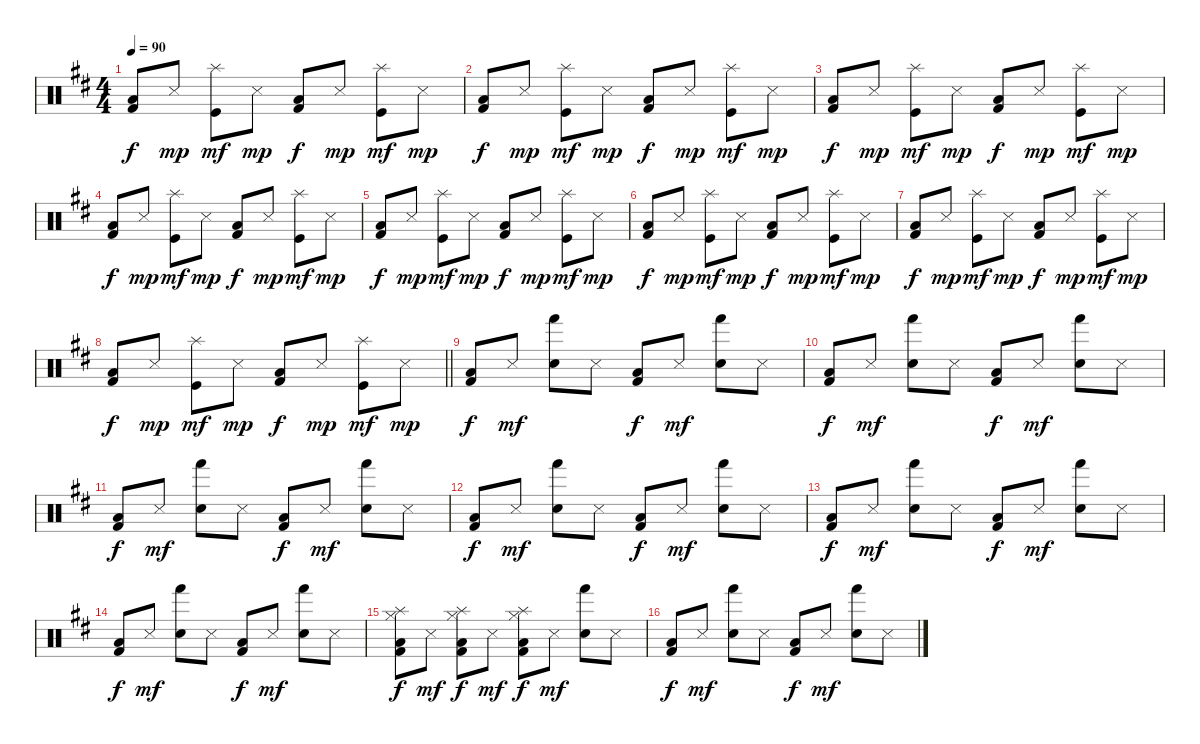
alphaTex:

\track "" {instrument percussion}
\staff {score}
\articulation defaults
\ts (4 4)
\section ("" "")
\tempo 90
\clef neutral
\ks d
("Kick (hit) 2" "Low Floor Tom (hit)").8{dy f} "Snare (side stick) 3".8{dy mp} ("Splash (hit)" "Kick (hit)").8{dy mf} "Snare (side stick) 3".8{dy mp} ("Kick (hit) 2" "Low Floor Tom (hit)").8{dy f} "Snare (side stick) 3".8{dy mp} ("Splash (hit)" "Kick (hit)").8{dy mf} "Snare (side stick) 3".8{dy mp} |
("Kick (hit) 2" "Low Floor Tom (hit)").8{dy f} "Snare (side stick) 3".8{dy mp} ("Splash (hit)" "Kick (hit)").8{dy mf} "Snare (side stick) 3".8{dy mp} ("Kick (hit) 2" "Low Floor Tom (hit)").8{dy f} "Snare (side stick) 3".8{dy mp} ("Splash (hit)" "Kick (hit)").8{dy mf} "Snare (side stick) 3".8{dy mp} |
("Kick (hit) 2" "Low Floor Tom (hit)").8{dy f} "Snare (side stick) 3".8{dy mp} ("Splash (hit)" "Kick (hit)").8{dy mf} "Snare (side stick) 3".8{dy mp} ("Kick (hit) 2" "Low Floor Tom (hit)").8{dy f} "Snare (side stick) 3".8{dy mp} ("Splash (hit)" "Kick (hit)").8{dy mf} "Snare (side stick) 3".8{dy mp} |
("Kick (hit) 2" "Low Floor Tom (hit)").8{dy f} "Snare (side stick) 3".8{dy mp} ("Splash (hit)" "Kick (hit)").8{dy mf} "Snare (side stick) 3".8{dy mp} ("Kick (hit) 2" "Low Floor Tom (hit)").8{dy f} "Snare (side stick) 3".8{dy mp} ("Splash (hit)" "Kick (hit)").8{dy mf} "Snare (side stick) 3".8{dy mp} |
("Kick (hit) 2" "Low Floor Tom (hit)").8{dy f} "Snare (side stick) 3".8{dy mp} ("Splash (hit)" "Kick (hit)").8{dy mf} "Snare (side stick) 3".8{dy mp} ("Kick (hit) 2" "Low Floor Tom (hit)").8{dy f} "Snare (side stick) 3".8{dy mp} ("Splash (hit)" "Kick (hit)").8{dy mf} "Snare (side stick) 3".8{dy mp} |
("Kick (hit) 2" "Low Floor Tom (hit)").8{dy f} "Snare (side stick) 3".8{dy mp} ("Splash (hit)" "Kick (hit)").8{dy mf} "Snare (side stick) 3".8{dy mp} ("Kick (hit) 2" "Low Floor Tom (hit)").8{dy f} "Snare (side stick) 3".8{dy mp} ("Splash (hit)" "Kick (hit)").8{dy mf} "Snare (side stick) 3".8{dy mp} |
("Kick (hit) 2" "Low Floor Tom (hit)").8{dy f} "Snare (side stick) 3".8{dy mp} ("Splash (hit)" "Kick (hit)").8{dy mf} "Snare (side stick) 3".8{dy mp} ("Kick (hit) 2" "Low Floor Tom (hit)").8{dy f} "Snare (side stick) 3".8{dy mp} ("Splash (hit)" "Kick (hit)").8{dy mf} "Snare (side stick) 3".8{dy mp} |
\barLineRight lightlight
("Kick (hit) 2" "Low Floor Tom (hit)").8{dy f} "Snare (side stick) 3".8{dy mp} ("Splash (hit)" "Kick (hit)").8{dy mf} "Snare (side stick) 3".8{dy mp} ("Kick (hit) 2" "Low Floor Tom (hit)").8{dy f} "Snare (side stick) 3".8{dy mp} ("Splash (hit)" "Kick (hit)").8{dy mf} "Snare (side stick) 3".8{dy mp} |
\section ("" "")
("Kick (hit) 2" "Low Floor Tom (hit)").8{dy f} "Snare (side stick) 3".8{dy mf} ("Electric Snare (hit)" "Hand (hit)").8 "Snare (side stick) 3".8 ("Kick (hit) 2" "Low Floor Tom (hit)").8{dy f} "Snare (side stick) 3".8{dy mf} ("Electric Snare (hit)" "Hand (hit)").8 "Snare (side stick) 3".8 |
("Kick (hit) 2" "Low Floor Tom (hit)").8{dy f} "Snare (side stick) 3".8{dy mf} ("Electric Snare (hit)" "Hand (hit)").8 "Snare (side stick) 3".8 ("Kick (hit) 2" "Low Floor Tom (hit)").8{dy f} "Snare (side stick) 3".8{dy mf} ("Electric Snare (hit)" "Hand (hit)").8 "Snare (side stick) 3".8 |
("Kick (hit) 2" "Low Floor Tom (hit)").8{dy f} "Snare (side stick) 3".8{dy mf} ("Electric Snare (hit)" "Hand (hit)").8 "Snare (side stick) 3".8 ("Kick (hit) 2" "Low Floor Tom (hit)").8{dy f} "Snare (side stick) 3".8{dy mf} ("Electric Snare (hit)" "Hand (hit)").8 "Snare (side stick) 3".8 |
("Kick (hit) 2" "Low Floor Tom (hit)").8{dy f} "Snare (side stick) 3".8{dy mf} ("Electric Snare (hit)" "Hand (hit)").8 "Snare (side stick) 3".8 ("Kick (hit) 2" "Low Floor Tom (hit)").8{dy f} "Snare (side stick) 3".8{dy mf} ("Electric Snare (hit)" "Hand (hit)").8 "Snare (side stick) 3".8 |
("Kick (hit) 2" "Low Floor Tom (hit)").8{dy f} "Snare (side stick) 3".8{dy mf} ("Electric Snare (hit)" "Hand (hit)").8 "Snare (side stick) 3".8 ("Kick (hit) 2" "Low Floor Tom (hit)").8{dy f} "Snare (side stick) 3".8{dy mf} ("Electric Snare (hit)" "Hand (hit)").8 "Snare (side stick) 3".8 |
("Kick (hit) 2" "Low Floor Tom (hit)").8{dy f} "Snare (side stick) 3".8{dy mf} ("Electric Snare (hit)" "Hand (hit)").8 "Snare (side stick) 3".8 ("Kick (hit) 2" "Low Floor Tom (hit)").8{dy f} "Snare (side stick) 3".8{dy mf} ("Electric Snare (hit)" "Hand (hit)").8 "Snare (side stick) 3".8 |
("Kick (hit) 2" "Low Floor Tom (hit)" "Splash (hit)" "Hi-Hat (closed)").8{dy f} "Snare (side stick) 3".8{dy mf} ("Kick (hit) 2" "Low Floor Tom (hit)" "Splash (hit)" "Hi-Hat (closed)").8{dy f} "Snare (side stick) 3".8{dy mf} ("Kick (hit) 2" "Low Floor Tom (hit)" "Splash (hit)" "Hi-Hat (closed)").8{dy f} "Snare (side stick) 3".8{dy mf} ("Electric Snare (hit)" "Hand (hit)").8 "Snare (side stick) 3".8 |
("Kick (hit) 2" "Low Floor Tom (hit)").8{dy f} "Snare (side stick) 3".8{dy mf} ("Electric Snare (hit)" "Hand (hit)").8 "Snare (side stick) 3".8 ("Kick (hit) 2" "Low Floor Tom (hit)").8{dy f} "Snare (side stick) 3".8{dy mf} ("Electric Snare (hit)" "Hand (hit)").8 "Snare (side stick) 3".8
